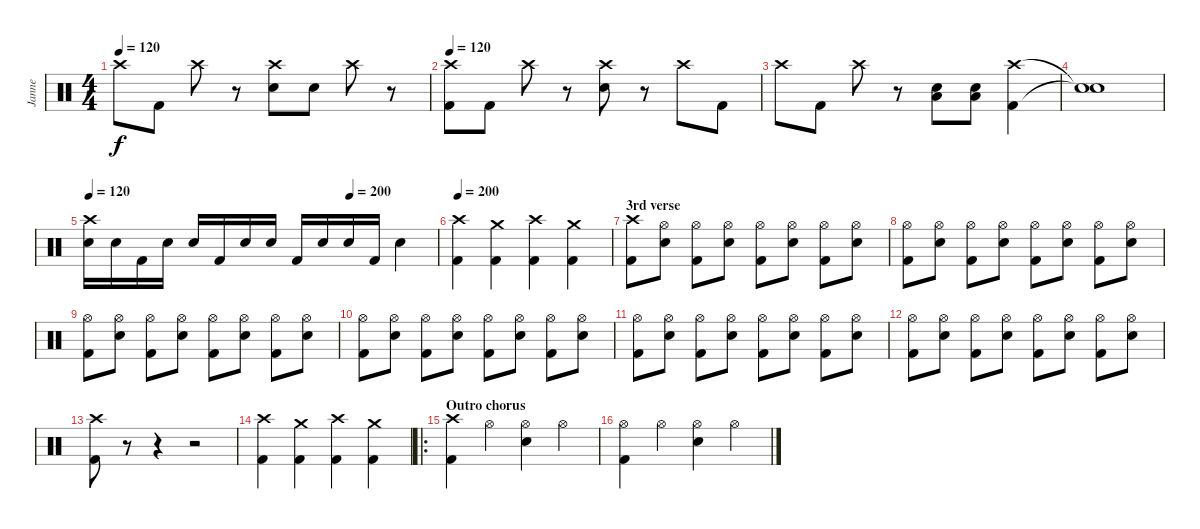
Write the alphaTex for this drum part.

\track ("Janne" "Janne") {instrument percussion}
\staff {score}
\articulation defaults
\ts (4 4)
\tempo 120
\clef neutral
\ks c "Crash high (hit)".8{dy f} "Kick (hit) 2".8 "Crash high (hit)".8
r.8 ("Crash high (hit)" "Electric Snare (hit)").8 "Electric Snare (hit)".8 "Crash high (hit)".8 r.8 |
\tempo 120
("Crash high (hit)" "Kick (hit) 2").8 "Kick (hit) 2".8 "Crash high (hit)".8 r.8 ("Crash high (hit)" "Electric Snare (hit)").8 r.8 "Crash high (hit)".8 "Kick (hit) 2".8 |
"Crash high (hit)".8 "Kick (hit) 2".8 "Crash high (hit)".8 r.8 ("Low Floor Tom (hit)" "Electric Snare (hit)").8 ("Low Floor Tom (hit)" "Electric Snare (hit)").8 ("Crash high (hit)" "Kick (hit) 2").4 |
("Snare (hit)"{t} "Snare (hit)"{t}).1 |
\tempo 120
\tempo (200 0.75)
("Crash high (hit)" "Electric Snare (hit)").16 "Electric Snare (hit)".16 "Kick (hit) 2".16 "Electric Snare (hit)".16 "Electric Snare (hit)".16 "Kick (hit) 2".16 "Electric Snare (hit)".16 "Electric Snare (hit)".16 "Kick (hit) 2".16 "Electric Snare (hit)".16 "Electric Snare (hit)".16 "Kick (hit) 2".16 "Electric Snare (hit)".4 |
\tempo 200
("Crash high (hit)" "Kick (hit) 2").4 ("Crash medium (hit)" "Kick (hit) 2").4 ("Crash high (hit)" "Kick (hit) 2").4 ("Crash medium (hit)" "Kick (hit) 2").4 |
\section ("" "3rd verse")
("Crash high (hit)" "Kick (hit) 2").8 ("Hi-Hat (open)" "Electric Snare (hit)").8 ("Hi-Hat (open)" "Kick (hit) 2").8 ("Hi-Hat (open)" "Electric Snare (hit)").8 ("Hi-Hat (open)" "Kick (hit) 2").8 ("Hi-Hat (open)" "Electric Snare (hit)").8 ("Hi-Hat (open)" "Kick (hit) 2").8 ("Hi-Hat (open)" "Electric Snare (hit)").8 |
("Hi-Hat (open)" "Kick (hit) 2").8 ("Hi-Hat (open)" "Electric Snare (hit)").8 ("Hi-Hat (open)" "Kick (hit) 2").8 ("Hi-Hat (open)" "Electric Snare (hit)").8 ("Hi-Hat (open)" "Kick (hit) 2").8 ("Hi-Hat (open)" "Electric Snare (hit)").8 ("Hi-Hat (open)" "Kick (hit) 2").8 ("Hi-Hat (open)" "Electric Snare (hit)").8 |
("Hi-Hat (open)" "Kick (hit) 2").8 ("Hi-Hat (open)" "Electric Snare (hit)").8 ("Hi-Hat (open)" "Kick (hit) 2").8 ("Hi-Hat (open)" "Electric Snare (hit)").8 ("Hi-Hat (open)" "Kick (hit) 2").8 ("Hi-Hat (open)" "Electric Snare (hit)").8 ("Hi-Hat (open)" "Kick (hit) 2").8 ("Hi-Hat (open)" "Electric Snare (hit)").8 |
("Hi-Hat (open)" "Kick (hit) 2").8 ("Hi-Hat (open)" "Electric Snare (hit)").8 ("Hi-Hat (open)" "Kick (hit) 2").8 ("Hi-Hat (open)" "Electric Snare (hit)").8 ("Hi-Hat (open)" "Kick (hit) 2").8 ("Hi-Hat (open)" "Electric Snare (hit)").8 ("Hi-Hat (open)" "Kick (hit) 2").8 ("Hi-Hat (open)" "Electric Snare (hit)").8 |
("Hi-Hat (open)" "Kick (hit) 2").8 ("Hi-Hat (open)" "Electric Snare (hit)").8 ("Hi-Hat (open)" "Kick (hit) 2").8 ("Hi-Hat (open)" "Electric Snare (hit)").8 ("Hi-Hat (open)" "Kick (hit) 2").8 ("Hi-Hat (open)" "Electric Snare (hit)").8 ("Hi-Hat (open)" "Kick (hit) 2").8 ("Hi-Hat (open)" "Electric Snare (hit)").8 |
("Hi-Hat (open)" "Kick (hit) 2").8 ("Hi-Hat (open)" "Electric Snare (hit)").8 ("Hi-Hat (open)" "Kick (hit) 2").8 ("Hi-Hat (open)" "Electric Snare (hit)").8 ("Hi-Hat (open)" "Kick (hit) 2").8 ("Hi-Hat (open)" "Electric Snare (hit)").8 ("Hi-Hat (open)" "Kick (hit) 2").8 ("Hi-Hat (open)" "Electric Snare (hit)").8 |
("Crash high (hit)" "Kick (hit) 2").8 r.8 r.4 r.2 |
("Crash high (hit)" "Kick (hit) 2").4 ("Crash medium (hit)" "Kick (hit) 2").4 ("Crash high (hit)" "Kick (hit) 2").4 ("Crash medium (hit)" "Kick (hit) 2").4 |
\ro
\section ("" "Outro chorus")
("Crash high (hit)" "Kick (hit) 2").4 "Hi-Hat (open)".4 ("Hi-Hat (open)" "Electric Snare (hit)").4 "Hi-Hat (open)".4 |
("Hi-Hat (open)" "Kick (hit) 2").4 "Hi-Hat (open)".4 ("Hi-Hat (open)" "Electric Snare (hit)").4 "Hi-Hat (open)".4
